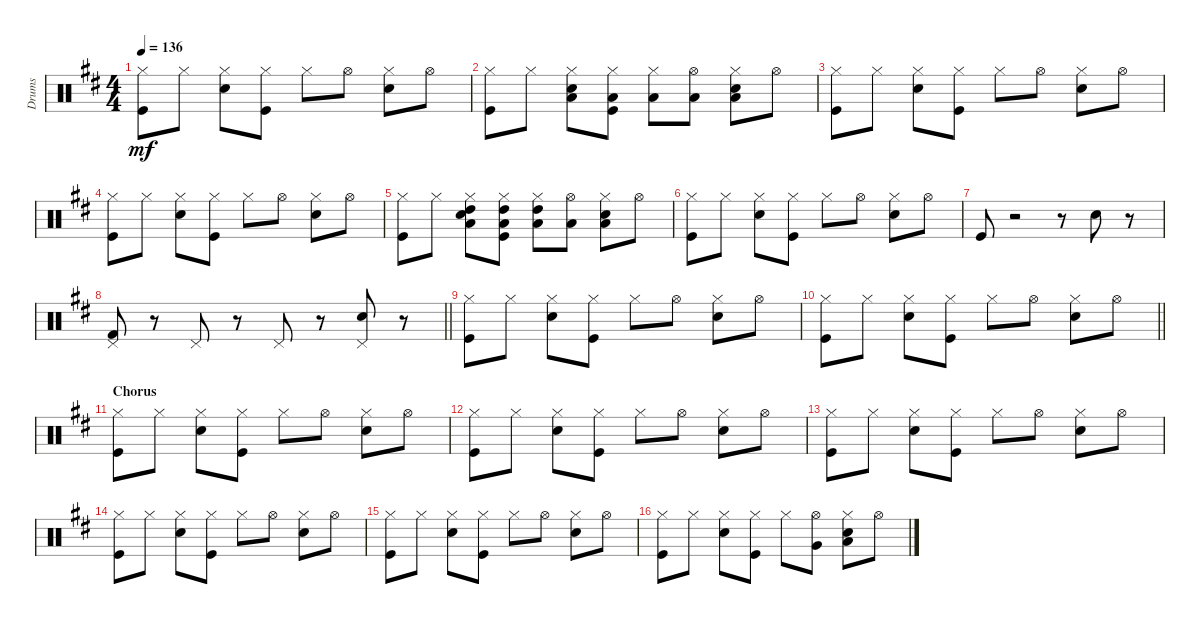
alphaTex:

\track ("Drums" "Drums") {instrument percussion}
\staff {score}
\articulation defaults
\ts (4 4)
\tempo 136
\clef neutral
\ks bminor
("Kick (hit)" "Hi-Hat (closed)").8{dy mf} "Hi-Hat (closed)".8 ("Snare (hit) 2" "Hi-Hat (closed)").8 ("Kick (hit)" "Hi-Hat (closed)").8 "Hi-Hat (closed)".8 "Hi-Hat (open)".8 ("Snare (hit) 2" "Hi-Hat (closed)").8 "Hi-Hat (open)".8 |
("Kick (hit)" "Hi-Hat (closed)").8 "Hi-Hat (closed)".8 ("Low Floor Tom (hit)" "Snare (hit) 2" "Hi-Hat (closed)").8 ("Low Floor Tom (hit)" "Kick (hit)" "Hi-Hat (closed)").8 ("Low Floor Tom (hit)" "Hi-Hat (closed)").8 ("Low Floor Tom (hit)" "Hi-Hat (open)").8 ("Low Floor Tom (hit)" "Snare (hit) 2" "Hi-Hat (closed)").8 "Hi-Hat (open)".8 |
("Kick (hit)" "Hi-Hat (closed)").8 "Hi-Hat (closed)".8 ("Snare (hit) 2" "Hi-Hat (closed)").8 ("Kick (hit)" "Hi-Hat (closed)").8 "Hi-Hat (closed)".8 "Hi-Hat (open)".8 ("Snare (hit) 2" "Hi-Hat (closed)").8 "Hi-Hat (open)".8 |
("Kick (hit)" "Hi-Hat (closed)").8 "Hi-Hat (closed)".8 ("Snare (hit) 2" "Hi-Hat (closed)").8 ("Kick (hit)" "Hi-Hat (closed)").8 "Hi-Hat (closed)".8 "Hi-Hat (open)".8 ("Snare (hit) 2" "Hi-Hat (closed)").8 "Hi-Hat (open)".8 |
("Kick (hit)" "Hi-Hat (closed)").8 "Hi-Hat (closed)".8 ("High Tom (hit)" "Low Floor Tom (hit)" "Snare (hit) 2" "Hi-Hat (closed)").8 ("High Tom (hit)" "Low Floor Tom (hit)" "Kick (hit)" "Hi-Hat (closed)").8 ("High Tom (hit)" "Low Floor Tom (hit)" "Hi-Hat (closed)").8 ("Low Floor Tom (hit)" "Hi-Hat (open)").8 ("Low Floor Tom (hit)" "Snare (hit) 2" "Hi-Hat (closed)").8 "Hi-Hat (open)".8 |
("Kick (hit)" "Hi-Hat (closed)").8 "Hi-Hat (closed)".8 ("Snare (hit) 2" "Hi-Hat (closed)").8 ("Kick (hit)" "Hi-Hat (closed)").8 "Hi-Hat (closed)".8 "Hi-Hat (open)".8 ("Snare (hit) 2" "Hi-Hat (closed)").8 "Hi-Hat (open)".8 |
"Kick (hit)".8 r.2 r.8 "Snare (hit) 2".8 r.8 |
\barLineRight lightlight
("Pedal Hi-Hat (hit)" "Kick (hit) 2").8 r.8 "Pedal Hi-Hat (hit)".8 r.8 "Pedal Hi-Hat (hit)".8 r.8 ("Pedal Hi-Hat (hit)" "Snare (hit) 2").8 r.8 |
("Kick (hit)" "Hi-Hat (closed)").8 "Hi-Hat (closed)".8 ("Snare (hit) 2" "Hi-Hat (closed)").8 ("Kick (hit)" "Hi-Hat (closed)").8 "Hi-Hat (closed)".8 "Hi-Hat (open)".8 ("Snare (hit) 2" "Hi-Hat (closed)").8 "Hi-Hat (open)".8 |
\barLineRight lightlight
("Kick (hit)" "Hi-Hat (closed)").8 "Hi-Hat (closed)".8 ("Snare (hit) 2" "Hi-Hat (closed)").8 ("Kick (hit)" "Hi-Hat (closed)").8 "Hi-Hat (closed)".8 "Hi-Hat (open)".8 ("Snare (hit) 2" "Hi-Hat (closed)").8 "Hi-Hat (open)".8 |
\section ("" "Chorus")
("Kick (hit)" "Hi-Hat (closed)").8 "Hi-Hat (closed)".8 ("Snare (hit) 2" "Hi-Hat (closed)").8 ("Kick (hit)" "Hi-Hat (closed)").8 "Hi-Hat (closed)".8 "Hi-Hat (open)".8 ("Snare (hit) 2" "Hi-Hat (closed)").8 "Hi-Hat (open)".8 |
("Kick (hit)" "Hi-Hat (closed)").8 "Hi-Hat (closed)".8 ("Snare (hit) 2" "Hi-Hat (closed)").8 ("Kick (hit)" "Hi-Hat (closed)").8 "Hi-Hat (closed)".8 "Hi-Hat (open)".8 ("Snare (hit) 2" "Hi-Hat (closed)").8 "Hi-Hat (open)".8 |
("Kick (hit)" "Hi-Hat (closed)").8 "Hi-Hat (closed)".8 ("Snare (hit) 2" "Hi-Hat (closed)").8 ("Kick (hit)" "Hi-Hat (closed)").8 "Hi-Hat (closed)".8 "Hi-Hat (open)".8 ("Snare (hit) 2" "Hi-Hat (closed)").8 "Hi-Hat (open)".8 |
("Kick (hit)" "Hi-Hat (closed)").8 "Hi-Hat (closed)".8 ("Snare (hit) 2" "Hi-Hat (closed)").8 ("Kick (hit)" "Hi-Hat (closed)").8 "Hi-Hat (closed)".8 "Hi-Hat (open)".8 ("Snare (hit) 2" "Hi-Hat (closed)").8 "Hi-Hat (open)".8 |
("Kick (hit)" "Hi-Hat (closed)").8 "Hi-Hat (closed)".8 ("Snare (hit) 2" "Hi-Hat (closed)").8 ("Kick (hit)" "Hi-Hat (closed)").8 "Hi-Hat (closed)".8 "Hi-Hat (open)".8 ("Snare (hit) 2" "Hi-Hat (closed)").8 "Hi-Hat (open)".8 |
("Kick (hit)" "Hi-Hat (closed)").8 "Hi-Hat (closed)".8 ("Snare (hit) 2" "Hi-Hat (closed)").8 ("Kick (hit)" "Hi-Hat (closed)").8 "Hi-Hat (closed)".8 ("Very Low Tom (hit)" "Hi-Hat (open)").8 ("Low Floor Tom (hit)" "Snare (hit) 2" "Hi-Hat (closed)").8 "Hi-Hat (open)".8
